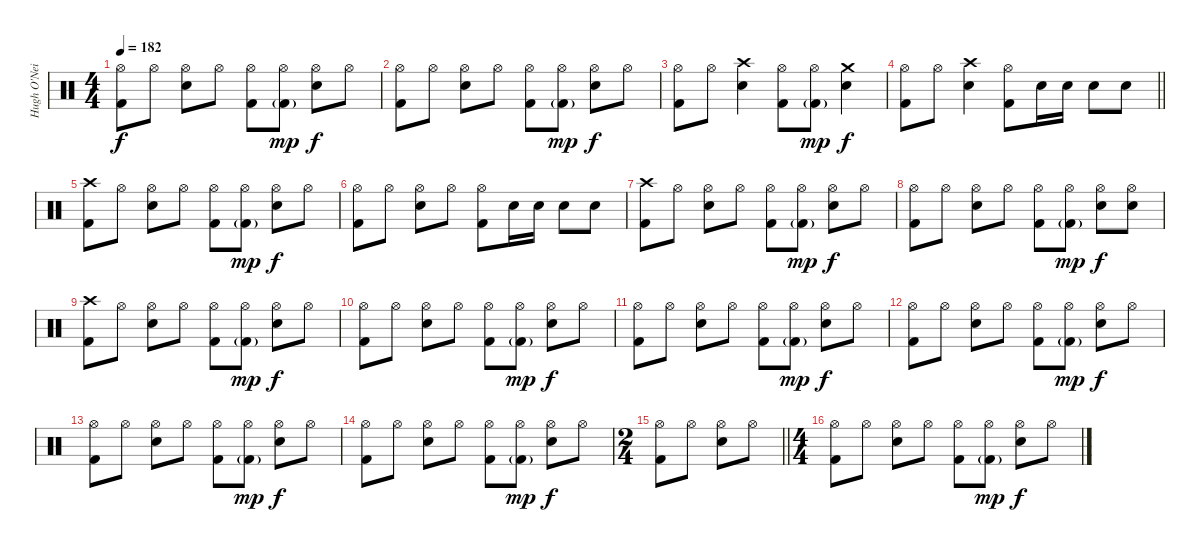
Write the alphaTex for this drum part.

\track ("Hugh O'Neil" "Hugh O'Nei") {instrument percussion}
\staff {score}
\articulation defaults
\ts (4 4)
\tempo 182
\clef neutral
\ks c
("Hi-Hat (open)" "Kick (hit) 2").8{dy f} "Hi-Hat (open)".8 ("Hi-Hat (open)" "Electric Snare (hit)").8 "Hi-Hat (open)".8 ("Hi-Hat (open)" "Kick (hit) 2").8 ("Hi-Hat (open)" "Kick (hit) 2"{g}).8{dy mp} ("Hi-Hat (open)" "Electric Snare (hit)").8{dy f} "Hi-Hat (open)".8 |
("Hi-Hat (open)" "Kick (hit) 2").8 "Hi-Hat (open)".8 ("Hi-Hat (open)" "Electric Snare (hit)").8 "Hi-Hat (open)".8 ("Hi-Hat (open)" "Kick (hit) 2").8 ("Hi-Hat (open)" "Kick (hit) 2"{g}).8{dy mp} ("Hi-Hat (open)" "Electric Snare (hit)").8{dy f} "Hi-Hat (open)".8 |
("Hi-Hat (open)" "Kick (hit) 2").8 "Hi-Hat (open)".8 ("Crash high (hit)" "Electric Snare (hit)").4 ("Hi-Hat (open)" "Kick (hit) 2").8 ("Hi-Hat (open)" "Kick (hit) 2"{g}).8{dy mp} ("Crash medium (hit)" "Electric Snare (hit)").4{dy f} |
\barLineRight lightlight
("Hi-Hat (open)" "Kick (hit) 2").8 "Hi-Hat (open)".8 ("Crash high (hit)" "Electric Snare (hit)").4 ("Hi-Hat (open)" "Kick (hit) 2").8 "Electric Snare (hit)".16 "Electric Snare (hit)".16 "Electric Snare (hit)".8 "Electric Snare (hit)".8 |
\section ("" "")
("Crash high (hit)" "Kick (hit) 2").8 "Hi-Hat (open)".8 ("Hi-Hat (open)" "Electric Snare (hit)").8 "Hi-Hat (open)".8 ("Hi-Hat (open)" "Kick (hit) 2").8 ("Hi-Hat (open)" "Kick (hit) 2"{g}).8{dy mp} ("Hi-Hat (open)" "Electric Snare (hit)").8{dy f} "Hi-Hat (open)".8 |
("Hi-Hat (open)" "Kick (hit) 2").8 "Hi-Hat (open)".8 ("Hi-Hat (open)" "Electric Snare (hit)").8 "Hi-Hat (open)".8 ("Hi-Hat (open)" "Kick (hit) 2").8 "Electric Snare (hit)".16 "Electric Snare (hit)".16 "Electric Snare (hit)".8 "Electric Snare (hit)".8 |
("Crash high (hit)" "Kick (hit) 2").8 "Hi-Hat (open)".8 ("Hi-Hat (open)" "Electric Snare (hit)").8 "Hi-Hat (open)".8 ("Hi-Hat (open)" "Kick (hit) 2").8 ("Hi-Hat (open)" "Kick (hit) 2"{g}).8{dy mp} ("Hi-Hat (open)" "Electric Snare (hit)").8{dy f} "Hi-Hat (open)".8 |
("Hi-Hat (open)" "Kick (hit) 2").8 "Hi-Hat (open)".8 ("Hi-Hat (open)" "Electric Snare (hit)").8 "Hi-Hat (open)".8 ("Hi-Hat (open)" "Kick (hit) 2").8 ("Hi-Hat (open)" "Kick (hit) 2"{g}).8{dy mp} ("Hi-Hat (open)" "Electric Snare (hit)").8{dy f} ("Hi-Hat (open)" "Electric Snare (hit)").8 |
("Crash high (hit)" "Kick (hit) 2").8 "Hi-Hat (open)".8 ("Hi-Hat (open)" "Electric Snare (hit)").8 "Hi-Hat (open)".8 ("Hi-Hat (open)" "Kick (hit) 2").8 ("Hi-Hat (open)" "Kick (hit) 2"{g}).8{dy mp} ("Hi-Hat (open)" "Electric Snare (hit)").8{dy f} "Hi-Hat (open)".8 |
("Hi-Hat (open)" "Kick (hit) 2").8 "Hi-Hat (open)".8 ("Hi-Hat (open)" "Electric Snare (hit)").8 "Hi-Hat (open)".8 ("Hi-Hat (open)" "Kick (hit) 2").8 ("Hi-Hat (open)" "Kick (hit) 2"{g}).8{dy mp} ("Hi-Hat (open)" "Electric Snare (hit)").8{dy f} "Hi-Hat (open)".8 |
("Hi-Hat (open)" "Kick (hit) 2").8 "Hi-Hat (open)".8 ("Hi-Hat (open)" "Electric Snare (hit)").8 "Hi-Hat (open)".8 ("Hi-Hat (open)" "Kick (hit) 2").8 ("Hi-Hat (open)" "Kick (hit) 2"{g}).8{dy mp} ("Hi-Hat (open)" "Electric Snare (hit)").8{dy f} "Hi-Hat (open)".8 |
("Hi-Hat (open)" "Kick (hit) 2").8 "Hi-Hat (open)".8 ("Hi-Hat (open)" "Electric Snare (hit)").8 "Hi-Hat (open)".8 ("Hi-Hat (open)" "Kick (hit) 2").8 ("Hi-Hat (open)" "Kick (hit) 2"{g}).8{dy mp} ("Hi-Hat (open)" "Electric Snare (hit)").8{dy f} "Hi-Hat (open)".8 |
("Hi-Hat (open)" "Kick (hit) 2").8 "Hi-Hat (open)".8 ("Hi-Hat (open)" "Electric Snare (hit)").8 "Hi-Hat (open)".8 ("Hi-Hat (open)" "Kick (hit) 2").8 ("Hi-Hat (open)" "Kick (hit) 2"{g}).8{dy mp} ("Hi-Hat (open)" "Electric Snare (hit)").8{dy f} "Hi-Hat (open)".8 |
("Hi-Hat (open)" "Kick (hit) 2").8 "Hi-Hat (open)".8 ("Hi-Hat (open)" "Electric Snare (hit)").8 "Hi-Hat (open)".8 ("Hi-Hat (open)" "Kick (hit) 2").8 ("Hi-Hat (open)" "Kick (hit) 2"{g}).8{dy mp} ("Hi-Hat (open)" "Electric Snare (hit)").8{dy f} "Hi-Hat (open)".8 |
\ts (2 4)
\barLineRight lightlight
("Hi-Hat (open)" "Kick (hit) 2").8 "Hi-Hat (open)".8 ("Hi-Hat (open)" "Electric Snare (hit)").8 "Hi-Hat (open)".8 |
\ts (4 4)
\section ("" "")
("Hi-Hat (open)" "Kick (hit) 2").8 "Hi-Hat (open)".8 ("Hi-Hat (open)" "Electric Snare (hit)").8 "Hi-Hat (open)".8 ("Hi-Hat (open)" "Kick (hit) 2").8 ("Hi-Hat (open)" "Kick (hit) 2"{g}).8{dy mp} ("Hi-Hat (open)" "Electric Snare (hit)").8{dy f} "Hi-Hat (open)".8
